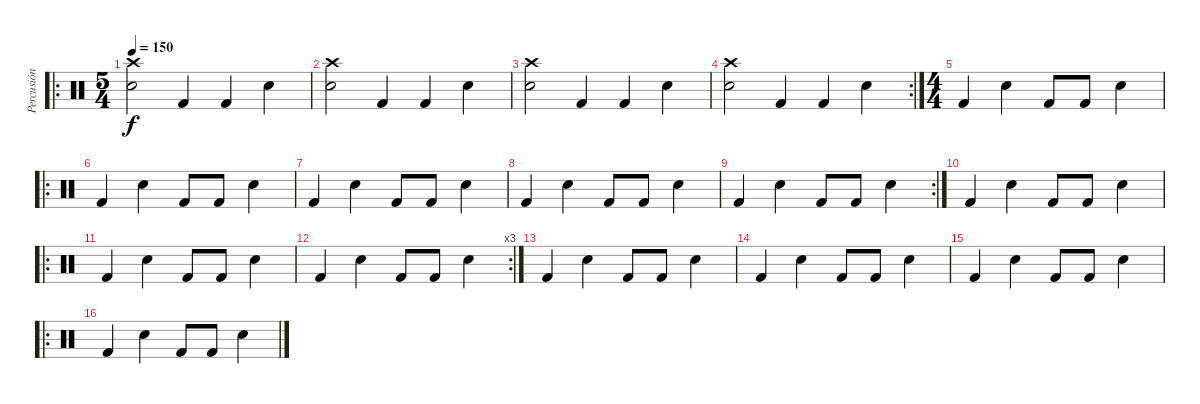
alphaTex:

\track ("Percusión" "Percusión") {instrument percussion}
\staff {score}
\articulation defaults
\ro
\ts (5 4)
\tempo 150
\clef neutral
\ks c
("Crash high (hit)" "Snare (hit) 2").2{dy f} "Kick (hit) 2".4 "Kick (hit) 2".4 "Snare (hit) 2".4 |
("Crash high (hit)" "Snare (hit) 2").2 "Kick (hit) 2".4 "Kick (hit) 2".4 "Snare (hit) 2".4 |
("Crash high (hit)" "Snare (hit) 2").2 "Kick (hit) 2".4 "Kick (hit) 2".4 "Snare (hit) 2".4 |
\rc 2
("Crash high (hit)" "Snare (hit) 2").2 "Kick (hit) 2".4 "Kick (hit) 2".4 "Snare (hit) 2".4 |
\ts (4 4)
"Kick (hit) 2".4 "Snare (hit) 2".4 "Kick (hit) 2".8 "Kick (hit) 2".8 "Snare (hit) 2".4 |
\ro "Kick (hit) 2".4 "Snare (hit) 2".4 "Kick (hit) 2".8 "Kick (hit) 2".8 "Snare (hit) 2".4
|
"Kick (hit) 2".4 "Snare (hit) 2".4 "Kick (hit) 2".8 "Kick (hit) 2".8 "Snare (hit) 2".4 |
"Kick (hit) 2".4 "Snare (hit) 2".4 "Kick (hit) 2".8 "Kick (hit) 2".8 "Snare (hit) 2".4 |
\rc 2 "Kick (hit) 2".4 "Snare (hit) 2".4 "Kick (hit) 2".8 "Kick (hit) 2".8 "Snare (hit) 2".4
|
"Kick (hit) 2".4 "Snare (hit) 2".4 "Kick (hit) 2".8 "Kick (hit) 2".8 "Snare (hit) 2".4 |
\ro "Kick (hit) 2".4 "Snare (hit) 2".4 "Kick (hit) 2".8 "Kick (hit) 2".8 "Snare (hit) 2".4
|
\rc 3 "Kick (hit) 2".4 "Snare (hit) 2".4 "Kick (hit) 2".8 "Kick (hit) 2".8 "Snare (hit) 2".4
|
"Kick (hit) 2".4 "Snare (hit) 2".4 "Kick (hit) 2".8 "Kick (hit) 2".8 "Snare (hit) 2".4 |
"Kick (hit) 2".4 "Snare (hit) 2".4 "Kick (hit) 2".8 "Kick (hit) 2".8 "Snare (hit) 2".4 |
"Kick (hit) 2".4 "Snare (hit) 2".4 "Kick (hit) 2".8 "Kick (hit) 2".8 "Snare (hit) 2".4 |
\ro "Kick (hit) 2".4 "Snare (hit) 2".4 "Kick (hit) 2".8 "Kick (hit) 2".8 "Snare (hit) 2".4
